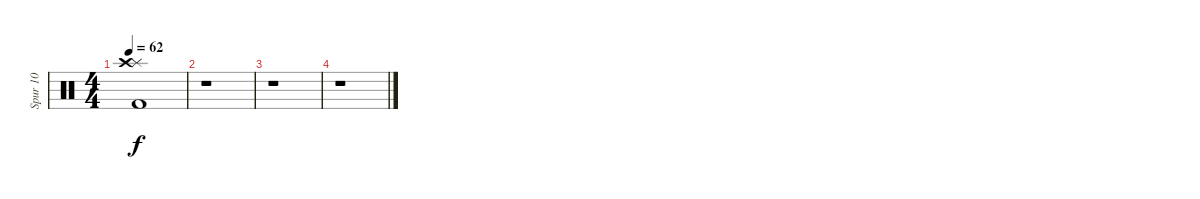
\track ("Spur 10" "Spur 10") {instrument percussion}
\staff {score}
\articulation defaults
\ts (4 4)
\tempo 62
\clef neutral
\ks c
("Splash (hit)" "Crash high (hit)" "Kick (hit) 2").1{dy f} |
r.1 |
r.1 |
r.1
